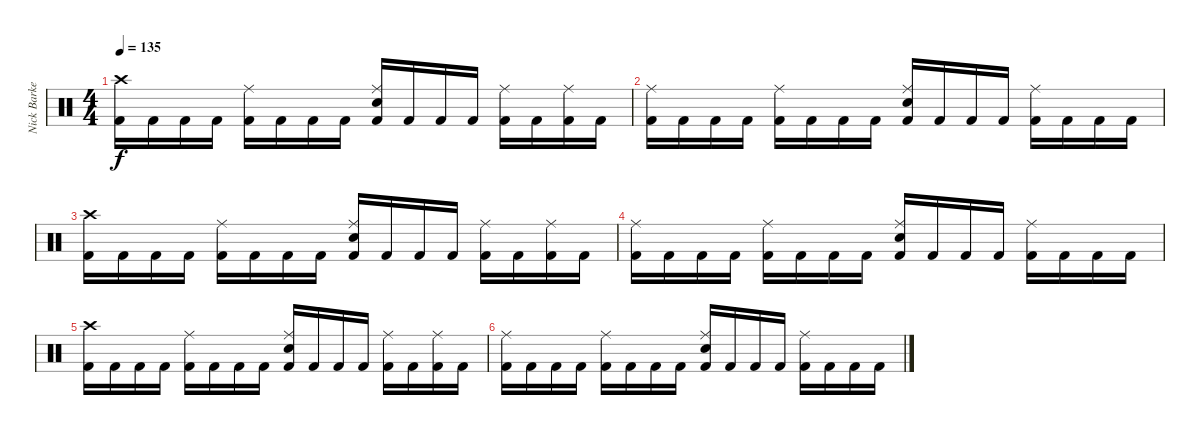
\track ("Nick Barker" "Nick Barke") {instrument percussion}
\staff {score}
\articulation defaults
\ts (4 4)
\tempo 135
\clef neutral
\ks c
("Crash high (hit)" "Kick (hit) 2").16{dy f} "Kick (hit) 2".16 "Kick (hit) 2".16 "Kick (hit) 2".16 ("Ride (middle)" "Kick (hit) 2").16 "Kick (hit) 2".16 "Kick (hit) 2".16 "Kick (hit) 2".16 ("Ride (middle)" "Electric Snare (hit)" "Kick (hit) 2").16 "Kick (hit) 2".16 "Kick (hit) 2".16 "Kick (hit) 2".16 ("Ride (middle)" "Kick (hit) 2").16 "Kick (hit) 2".16 ("Ride (middle)" "Kick (hit) 2").16 "Kick (hit) 2".16 |
("Ride (middle)" "Kick (hit) 2").16 "Kick (hit) 2".16 "Kick (hit) 2".16 "Kick (hit) 2".16 ("Ride (middle)" "Kick (hit) 2").16 "Kick (hit) 2".16 "Kick (hit) 2".16 "Kick (hit) 2".16 ("Ride (middle)" "Electric Snare (hit)" "Kick (hit) 2").16 "Kick (hit) 2".16 "Kick (hit) 2".16 "Kick (hit) 2".16 ("Ride (middle)" "Kick (hit) 2").16 "Kick (hit) 2".16 "Kick (hit) 2".16 "Kick (hit) 2".16 |
("Crash high (hit)" "Kick (hit) 2").16 "Kick (hit) 2".16 "Kick (hit) 2".16 "Kick (hit) 2".16 ("Ride (middle)" "Kick (hit) 2").16 "Kick (hit) 2".16 "Kick (hit) 2".16 "Kick (hit) 2".16 ("Ride (middle)" "Electric Snare (hit)" "Kick (hit) 2").16 "Kick (hit) 2".16 "Kick (hit) 2".16 "Kick (hit) 2".16 ("Ride (middle)" "Kick (hit) 2").16 "Kick (hit) 2".16 ("Ride (middle)" "Kick (hit) 2").16 "Kick (hit) 2".16 |
("Ride (middle)" "Kick (hit) 2").16 "Kick (hit) 2".16 "Kick (hit) 2".16 "Kick (hit) 2".16 ("Ride (middle)" "Kick (hit) 2").16 "Kick (hit) 2".16 "Kick (hit) 2".16 "Kick (hit) 2".16 ("Ride (middle)" "Electric Snare (hit)" "Kick (hit) 2").16 "Kick (hit) 2".16 "Kick (hit) 2".16 "Kick (hit) 2".16 ("Ride (middle)" "Kick (hit) 2").16 "Kick (hit) 2".16 "Kick (hit) 2".16 "Kick (hit) 2".16 |
("Crash high (hit)" "Kick (hit) 2").16 "Kick (hit) 2".16 "Kick (hit) 2".16 "Kick (hit) 2".16 ("Ride (middle)" "Kick (hit) 2").16 "Kick (hit) 2".16 "Kick (hit) 2".16 "Kick (hit) 2".16 ("Ride (middle)" "Electric Snare (hit)" "Kick (hit) 2").16 "Kick (hit) 2".16 "Kick (hit) 2".16 "Kick (hit) 2".16 ("Ride (middle)" "Kick (hit) 2").16 "Kick (hit) 2".16 ("Ride (middle)" "Kick (hit) 2").16 "Kick (hit) 2".16 |
("Ride (middle)" "Kick (hit) 2").16 "Kick (hit) 2".16 "Kick (hit) 2".16 "Kick (hit) 2".16 ("Ride (middle)" "Kick (hit) 2").16 "Kick (hit) 2".16 "Kick (hit) 2".16 "Kick (hit) 2".16 ("Ride (middle)" "Electric Snare (hit)" "Kick (hit) 2").16 "Kick (hit) 2".16 "Kick (hit) 2".16 "Kick (hit) 2".16 ("Ride (middle)" "Kick (hit) 2").16 "Kick (hit) 2".16 "Kick (hit) 2".16 "Kick (hit) 2".16
